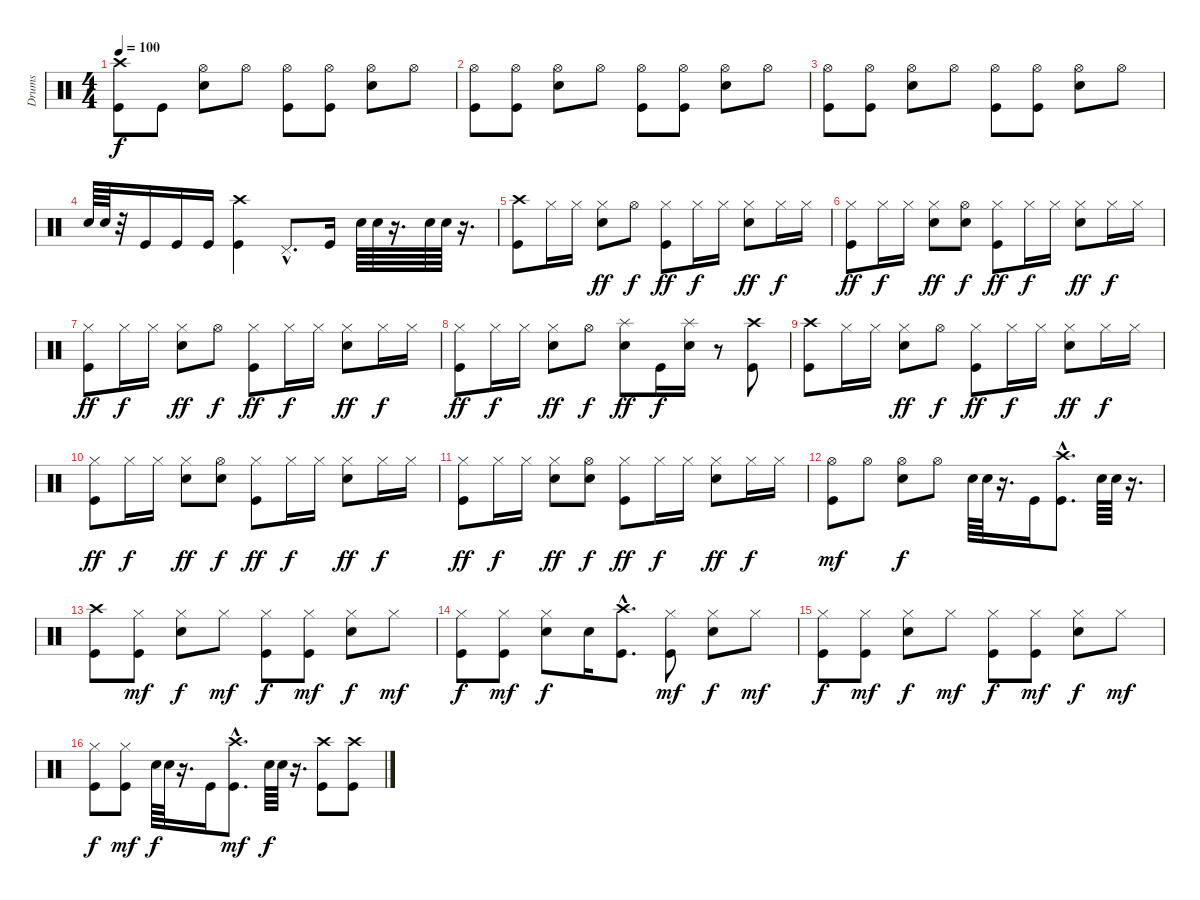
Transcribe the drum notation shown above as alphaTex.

\track ("Drums" "Drums") {instrument percussion}
\staff {score}
\articulation defaults
\ts (4 4)
\tempo 100
\clef neutral
\ks c
("Crash high (hit)" "Kick (hit)").8{dy f} "Kick (hit)".8 ("Hi-Hat (open)" "Snare (hit) 2").8 "Hi-Hat (open)".8 ("Hi-Hat (open)" "Kick (hit)").8 ("Hi-Hat (open)" "Kick (hit)").8 ("Hi-Hat (open)" "Snare (hit) 2").8 "Hi-Hat (open)".8 |
("Hi-Hat (open)" "Kick (hit)").8 ("Hi-Hat (open)" "Kick (hit)").8 ("Hi-Hat (open)" "Snare (hit) 2").8 "Hi-Hat (open)".8 ("Hi-Hat (open)" "Kick (hit)").8 ("Hi-Hat (open)" "Kick (hit)").8 ("Hi-Hat (open)" "Snare (hit) 2").8 "Hi-Hat (open)".8 |
("Hi-Hat (open)" "Kick (hit)").8 ("Hi-Hat (open)" "Kick (hit)").8 ("Hi-Hat (open)" "Snare (hit) 2").8 "Hi-Hat (open)".8 ("Hi-Hat (open)" "Kick (hit)").8 ("Hi-Hat (open)" "Kick (hit)").8 ("Hi-Hat (open)" "Snare (hit) 2").8 "Hi-Hat (open)".8 |
"Snare (hit) 2".64 "Snare (hit) 2".64 r.32 "Kick (hit)".16 "Kick (hit)".16 "Kick (hit)".16 ("Crash high (hit)" "Kick (hit)").4 "Pedal Hi-Hat (hit)"{hac}.8{d} "Kick (hit)".16 "Snare (hit) 2".64 "Snare (hit) 2".64 r.16{d} "Snare (hit) 2".64 "Snare (hit) 2".64 r.16{d} |
("Crash high (hit)" "Kick (hit)").8 "Hi-Hat (closed)".16 "Hi-Hat (closed)".16 ("Hi-Hat (closed)" "Snare (hit) 2").8{dy ff} "Hi-Hat (open)".8{dy f} ("Hi-Hat (closed)" "Kick (hit)").8{dy ff} "Hi-Hat (closed)".16{dy f} "Hi-Hat (closed)".16 ("Hi-Hat (closed)" "Snare (hit) 2").8{dy ff} "Hi-Hat (closed)".16{dy f} "Hi-Hat (closed)".16 |
("Hi-Hat (closed)" "Kick (hit)").8{dy ff} "Hi-Hat (closed)".16{dy f} "Hi-Hat (closed)".16 ("Hi-Hat (closed)" "Snare (hit) 2").8{dy ff} ("Hi-Hat (open)" "Snare (hit) 2").8{dy f} ("Hi-Hat (closed)" "Kick (hit)").8{dy ff} "Hi-Hat (closed)".16{dy f} "Hi-Hat (closed)".16 ("Hi-Hat (closed)" "Snare (hit) 2").8{dy ff} "Hi-Hat (closed)".16{dy f} "Hi-Hat (closed)".16 |
("Hi-Hat (closed)" "Kick (hit)").8{dy ff} "Hi-Hat (closed)".16{dy f} "Hi-Hat (closed)".16 ("Hi-Hat (closed)" "Snare (hit) 2").8{dy ff} "Hi-Hat (open)".8{dy f} ("Hi-Hat (closed)" "Kick (hit)").8{dy ff} "Hi-Hat (closed)".16{dy f} "Hi-Hat (closed)".16 ("Hi-Hat (closed)" "Snare (hit) 2").8{dy ff} "Hi-Hat (closed)".16{dy f} "Hi-Hat (closed)".16 |
("Hi-Hat (closed)" "Kick (hit)").8{dy ff} "Hi-Hat (closed)".16{dy f} "Hi-Hat (closed)".16 ("Hi-Hat (closed)" "Snare (hit) 2").8{dy ff} "Hi-Hat (open)".8{dy f} ("Splash (hit)" "Snare (hit) 2").8{dy ff} "Kick (hit)".16{dy f} ("Splash (hit)" "Snare (hit) 2").16 r.8 ("Crash high (hit)" "Kick (hit)").8 |
("Crash high (hit)" "Kick (hit)").8 "Hi-Hat (closed)".16 "Hi-Hat (closed)".16 ("Hi-Hat (closed)" "Snare (hit) 2").8{dy ff} "Hi-Hat (open)".8{dy f} ("Hi-Hat (closed)" "Kick (hit)").8{dy ff} "Hi-Hat (closed)".16{dy f} "Hi-Hat (closed)".16 ("Hi-Hat (closed)" "Snare (hit) 2").8{dy ff} "Hi-Hat (closed)".16{dy f} "Hi-Hat (closed)".16 |
("Hi-Hat (closed)" "Kick (hit)").8{dy ff} "Hi-Hat (closed)".16{dy f} "Hi-Hat (closed)".16 ("Hi-Hat (closed)" "Snare (hit) 2").8{dy ff} ("Hi-Hat (open)" "Snare (hit) 2").8{dy f} ("Hi-Hat (closed)" "Kick (hit)").8{dy ff} "Hi-Hat (closed)".16{dy f} "Hi-Hat (closed)".16 ("Hi-Hat (closed)" "Snare (hit) 2").8{dy ff} "Hi-Hat (closed)".16{dy f} "Hi-Hat (closed)".16 |
("Hi-Hat (closed)" "Kick (hit)").8{dy ff} "Hi-Hat (closed)".16{dy f} "Hi-Hat (closed)".16 ("Hi-Hat (closed)" "Snare (hit) 2").8{dy ff} ("Hi-Hat (open)" "Snare (hit) 2").8{dy f} ("Hi-Hat (closed)" "Kick (hit)").8{dy ff} "Hi-Hat (closed)".16{dy f} "Hi-Hat (closed)".16 ("Hi-Hat (closed)" "Snare (hit) 2").8{dy ff} "Hi-Hat (closed)".16{dy f} "Hi-Hat (closed)".16 |
("Hi-Hat (open)" "Kick (hit)").8{dy mf} "Hi-Hat (open)".8 ("Hi-Hat (open)" "Snare (hit) 2").8{dy f} "Hi-Hat (open)".8 "Snare (hit) 2".64 "Snare (hit) 2".64 r.16{d} "Kick (hit)".16 ("Crash high (hit)"{hac} "Kick (hit)"{hac}).8{d} "Snare (hit) 2".64 "Snare (hit) 2".64 r.16{d} |
("Crash high (hit)" "Kick (hit)").8 ("Hi-Hat (closed)" "Kick (hit)").8{dy mf} ("Hi-Hat (closed)" "Snare (hit) 2").8{dy f} "Hi-Hat (closed)".8{dy mf} ("Hi-Hat (closed)" "Kick (hit)").8{dy f} ("Hi-Hat (closed)" "Kick (hit)").8{dy mf} ("Hi-Hat (closed)" "Snare (hit) 2").8{dy f} "Hi-Hat (closed)".8{dy mf} |
("Hi-Hat (closed)" "Kick (hit)").8{dy f} ("Hi-Hat (closed)" "Kick (hit)").8{dy mf} ("Hi-Hat (closed)" "Snare (hit) 2").8{dy f} "Snare (hit) 2".16 ("Crash high (hit)"{hac} "Kick (hit)"{hac}).8{d} ("Hi-Hat (closed)" "Kick (hit)").8{dy mf} ("Hi-Hat (closed)" "Snare (hit) 2").8{dy f} "Hi-Hat (closed)".8{dy mf} |
("Hi-Hat (closed)" "Kick (hit)").8{dy f} ("Hi-Hat (closed)" "Kick (hit)").8{dy mf} ("Hi-Hat (closed)" "Snare (hit) 2").8{dy f} "Hi-Hat (closed)".8{dy mf} ("Hi-Hat (closed)" "Kick (hit)").8{dy f} ("Hi-Hat (closed)" "Kick (hit)").8{dy mf} ("Hi-Hat (closed)" "Snare (hit) 2").8{dy f} "Hi-Hat (closed)".8{dy mf} |
("Hi-Hat (closed)" "Kick (hit)").8{dy f} ("Hi-Hat (closed)" "Kick (hit)").8{dy mf} "Snare (hit) 2".64{dy f} "Snare (hit) 2".64 r.16{d} "Kick (hit)".16 ("Crash high (hit)"{hac} "Kick (hit)"{hac}).8{d dy mf} "Snare (hit) 2".64{dy f} "Snare (hit) 2".64 r.16{d} ("Crash high (hit)" "Kick (hit)").8 ("Crash high (hit)" "Kick (hit)").8
